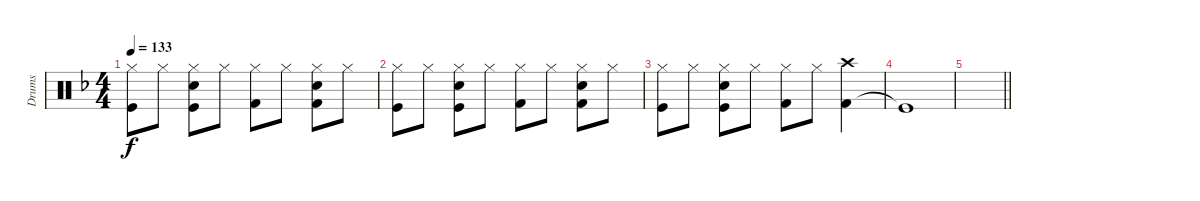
\track ("Drums" "Drums") {instrument percussion}
\staff {score}
\articulation defaults
\ts (4 4)
\tempo 133
\clef neutral
\ks f
("Hi-Hat (closed)" "Kick (hit)").8{dy f} "Hi-Hat (closed)".8 ("Hi-Hat (closed)" "Kick (hit)" "Electric Snare (hit)").8 "Hi-Hat (closed)".8 ("Hi-Hat (closed)" "Kick (hit) 2").8 "Hi-Hat (closed)".8 ("Kick (hit) 2" "Hi-Hat (closed)" "Electric Snare (hit)").8 "Hi-Hat (closed)".8 |
("Hi-Hat (closed)" "Kick (hit)").8 "Hi-Hat (closed)".8 ("Hi-Hat (closed)" "Kick (hit)" "Electric Snare (hit)").8 "Hi-Hat (closed)".8 ("Hi-Hat (closed)" "Kick (hit) 2").8 "Hi-Hat (closed)".8 ("Kick (hit) 2" "Hi-Hat (closed)" "Electric Snare (hit)").8 "Hi-Hat (closed)".8 |
("Hi-Hat (closed)" "Kick (hit)").8 "Hi-Hat (closed)".8 ("Hi-Hat (closed)" "Kick (hit)" "Electric Snare (hit)").8 "Hi-Hat (closed)".8 ("Hi-Hat (closed)" "Kick (hit) 2").8 "Hi-Hat (closed)".8 ("Kick (hit) 2" "Crash high (hit)").4 |
"Kick (hit)"{t}.1 |
\barLineRight lightlight
